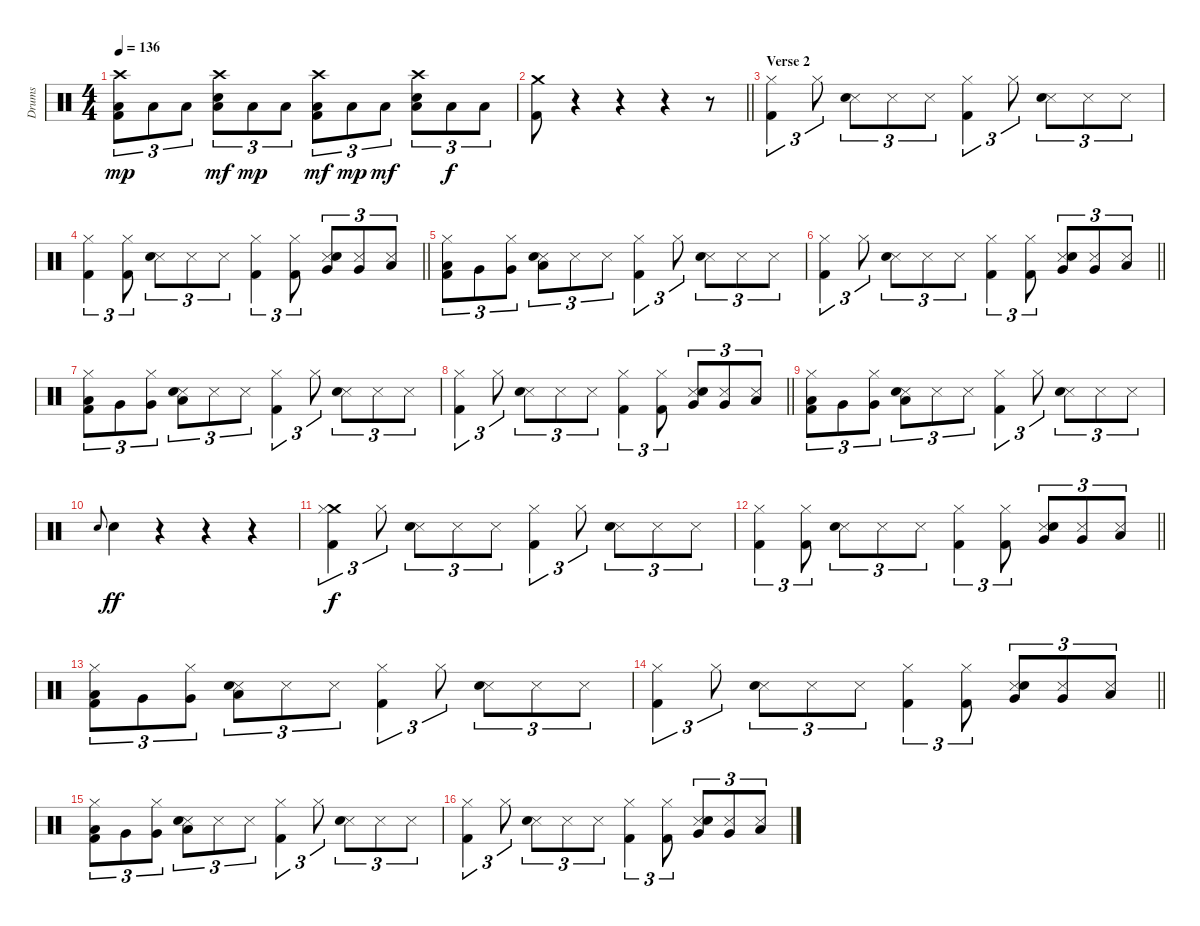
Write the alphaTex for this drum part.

\track ("Drums" "Drums") {instrument percussion}
\staff {score}
\articulation defaults
\ts (4 4)
\tempo 136
\clef neutral
\ks c
("Crash high (hit)" "Low Floor Tom (hit)" "Kick (hit) 2").8{tu (3 2) dy mp} "Low Floor Tom (hit)".8{tu (3 2)} "Low Floor Tom (hit)".8{tu (3 2)} ("Crash high (hit)" "Electric Snare (hit)" "Low Floor Tom (hit)").8{tu (3 2) dy mf} "Low Floor Tom (hit)".8{tu (3 2) dy mp} "Low Floor Tom (hit)".8{tu (3 2)} ("Crash high (hit)" "Low Floor Tom (hit)" "Kick (hit) 2").8{tu (3 2) dy mf} "Low Floor Tom (hit)".8{tu (3 2) dy mp} "Low Floor Tom (hit)".8{tu (3 2) dy mf} ("Crash high (hit)" "Electric Snare (hit)" "Low Floor Tom (hit)").8{tu (3 2)} "Low Floor Tom (hit)".8{tu (3 2) dy f} "Low Floor Tom (hit)".8{tu (3 2)} |
\barLineRight lightlight
("Crash medium (hit)" "Kick (hit) 2").8 r.4 r.4 r.4 r.8 |
\section ("" "Verse 2")
("Hi-Hat (closed)" "Kick (hit) 2").4{tu (3 2)} "Hi-Hat (closed)".8{tu (3 2)} ("Snare (side stick) 3" "Electric Snare (hit)").8{tu (3 2)} "Snare (side stick) 3".8{tu (3 2)} "Snare (side stick) 3".8{tu (3 2)} ("Hi-Hat (closed)" "Kick (hit) 2").4{tu (3 2)} "Hi-Hat (closed)".8{tu (3 2)} ("Snare (side stick) 3" "Electric Snare (hit)").8{tu (3 2)} "Snare (side stick) 3".8{tu (3 2)} "Snare (side stick) 3".8{tu (3 2)} |
\barLineRight lightlight
("Hi-Hat (closed)" "Kick (hit) 2").4{tu (3 2)} ("Hi-Hat (closed)" "Kick (hit) 2").8{tu (3 2)} ("Snare (side stick) 3" "Electric Snare (hit)").8{tu (3 2)} "Snare (side stick) 3".8{tu (3 2)} "Snare (side stick) 3".8{tu (3 2)} ("Hi-Hat (closed)" "Kick (hit) 2").4{tu (3 2)} ("Hi-Hat (closed)" "Kick (hit) 2").8{tu (3 2)} ("Snare (side stick) 3" "Electric Snare (hit)" "Very Low Tom (hit)").8{tu (3 2)} ("Snare (side stick) 3" "Very Low Tom (hit)").8{tu (3 2)} ("Snare (side stick) 3" "Low Floor Tom (hit)").8{tu (3 2)} |
("Hi-Hat (closed)" "Low Floor Tom (hit)" "Kick (hit) 2").8{tu (3 2)} "Very Low Tom (hit)".8{tu (3 2)} ("Hi-Hat (closed)" "Very Low Tom (hit)").8{tu (3 2)} ("Snare (side stick) 3" "Electric Snare (hit)" "Low Tom (hit)").8{tu (3 2)} "Snare (side stick) 3".8{tu (3 2)} "Snare (side stick) 3".8{tu (3 2)} ("Hi-Hat (closed)" "Kick (hit) 2").4{tu (3 2)} "Hi-Hat (closed)".8{tu (3 2)} ("Snare (side stick) 3" "Electric Snare (hit)").8{tu (3 2)} "Snare (side stick) 3".8{tu (3 2)} "Snare (side stick) 3".8{tu (3 2)} |
\barLineRight lightlight
("Hi-Hat (closed)" "Kick (hit) 2").4{tu (3 2)} "Hi-Hat (closed)".8{tu (3 2)} ("Snare (side stick) 3" "Electric Snare (hit)").8{tu (3 2)} "Snare (side stick) 3".8{tu (3 2)} "Snare (side stick) 3".8{tu (3 2)} ("Hi-Hat (closed)" "Kick (hit) 2").4{tu (3 2)} ("Hi-Hat (closed)" "Kick (hit) 2").8{tu (3 2)} ("Snare (side stick) 3" "Electric Snare (hit)" "Very Low Tom (hit)").8{tu (3 2)} ("Snare (side stick) 3" "Very Low Tom (hit)").8{tu (3 2)} ("Snare (side stick) 3" "Low Floor Tom (hit)").8{tu (3 2)} |
("Hi-Hat (closed)" "Low Floor Tom (hit)" "Kick (hit) 2").8{tu (3 2)} "Very Low Tom (hit)".8{tu (3 2)} ("Hi-Hat (closed)" "Very Low Tom (hit)").8{tu (3 2)} ("Snare (side stick) 3" "Electric Snare (hit)" "Low Tom (hit)").8{tu (3 2)} "Snare (side stick) 3".8{tu (3 2)} "Snare (side stick) 3".8{tu (3 2)} ("Hi-Hat (closed)" "Kick (hit) 2").4{tu (3 2)} "Hi-Hat (closed)".8{tu (3 2)} ("Snare (side stick) 3" "Electric Snare (hit)").8{tu (3 2)} "Snare (side stick) 3".8{tu (3 2)} "Snare (side stick) 3".8{tu (3 2)} |
\barLineRight lightlight
("Hi-Hat (closed)" "Kick (hit) 2").4{tu (3 2)} "Hi-Hat (closed)".8{tu (3 2)} ("Snare (side stick) 3" "Electric Snare (hit)").8{tu (3 2)} "Snare (side stick) 3".8{tu (3 2)} "Snare (side stick) 3".8{tu (3 2)} ("Hi-Hat (closed)" "Kick (hit) 2").4{tu (3 2)} ("Hi-Hat (closed)" "Kick (hit) 2").8{tu (3 2)} ("Snare (side stick) 3" "Electric Snare (hit)" "Very Low Tom (hit)").8{tu (3 2)} ("Snare (side stick) 3" "Very Low Tom (hit)").8{tu (3 2)} ("Snare (side stick) 3" "Low Floor Tom (hit)").8{tu (3 2)} |
("Hi-Hat (closed)" "Low Floor Tom (hit)" "Kick (hit) 2").8{tu (3 2)} "Very Low Tom (hit)".8{tu (3 2)} ("Hi-Hat (closed)" "Very Low Tom (hit)").8{tu (3 2)} ("Snare (side stick) 3" "Electric Snare (hit)" "Low Tom (hit)").8{tu (3 2)} "Snare (side stick) 3".8{tu (3 2)} "Snare (side stick) 3".8{tu (3 2)} ("Hi-Hat (closed)" "Kick (hit) 2").4{tu (3 2)} "Hi-Hat (closed)".8{tu (3 2)} ("Snare (side stick) 3" "Electric Snare (hit)").8{tu (3 2)} "Snare (side stick) 3".8{tu (3 2)} "Snare (side stick) 3".8{tu (3 2)} |
"Electric Snare (hit)".8{gr onbeat} "Electric Snare (hit)".4{dy ff} r.4 r.4 r.4 |
("Crash medium (hit)" "Hi-Hat (closed)" "Kick (hit) 2").4{tu (3 2) dy f} "Hi-Hat (closed)".8{tu (3 2)} ("Snare (side stick) 3" "Electric Snare (hit)").8{tu (3 2)} "Snare (side stick) 3".8{tu (3 2)} "Snare (side stick) 3".8{tu (3 2)} ("Hi-Hat (closed)" "Kick (hit) 2").4{tu (3 2)} "Hi-Hat (closed)".8{tu (3 2)} ("Snare (side stick) 3" "Electric Snare (hit)").8{tu (3 2)} "Snare (side stick) 3".8{tu (3 2)} "Snare (side stick) 3".8{tu (3 2)} |
\barLineRight lightlight
("Hi-Hat (closed)" "Kick (hit) 2").4{tu (3 2)} ("Hi-Hat (closed)" "Kick (hit) 2").8{tu (3 2)} ("Snare (side stick) 3" "Electric Snare (hit)").8{tu (3 2)} "Snare (side stick) 3".8{tu (3 2)} "Snare (side stick) 3".8{tu (3 2)} ("Hi-Hat (closed)" "Kick (hit) 2").4{tu (3 2)} ("Hi-Hat (closed)" "Kick (hit) 2").8{tu (3 2)} ("Snare (side stick) 3" "Electric Snare (hit)" "Very Low Tom (hit)").8{tu (3 2)} ("Snare (side stick) 3" "Very Low Tom (hit)").8{tu (3 2)} ("Snare (side stick) 3" "Low Floor Tom (hit)").8{tu (3 2)} |
("Hi-Hat (closed)" "Low Floor Tom (hit)" "Kick (hit) 2").8{tu (3 2)} "Very Low Tom (hit)".8{tu (3 2)} ("Hi-Hat (closed)" "Very Low Tom (hit)").8{tu (3 2)} ("Snare (side stick) 3" "Electric Snare (hit)" "Low Tom (hit)").8{tu (3 2)} "Snare (side stick) 3".8{tu (3 2)} "Snare (side stick) 3".8{tu (3 2)} ("Hi-Hat (closed)" "Kick (hit) 2").4{tu (3 2)} "Hi-Hat (closed)".8{tu (3 2)} ("Snare (side stick) 3" "Electric Snare (hit)").8{tu (3 2)} "Snare (side stick) 3".8{tu (3 2)} "Snare (side stick) 3".8{tu (3 2)} |
\barLineRight lightlight
("Hi-Hat (closed)" "Kick (hit) 2").4{tu (3 2)} "Hi-Hat (closed)".8{tu (3 2)} ("Snare (side stick) 3" "Electric Snare (hit)").8{tu (3 2)} "Snare (side stick) 3".8{tu (3 2)} "Snare (side stick) 3".8{tu (3 2)} ("Hi-Hat (closed)" "Kick (hit) 2").4{tu (3 2)} ("Hi-Hat (closed)" "Kick (hit) 2").8{tu (3 2)} ("Snare (side stick) 3" "Electric Snare (hit)" "Very Low Tom (hit)").8{tu (3 2)} ("Snare (side stick) 3" "Very Low Tom (hit)").8{tu (3 2)} ("Snare (side stick) 3" "Low Floor Tom (hit)").8{tu (3 2)} |
("Hi-Hat (closed)" "Low Floor Tom (hit)" "Kick (hit) 2").8{tu (3 2)} "Very Low Tom (hit)".8{tu (3 2)} ("Hi-Hat (closed)" "Very Low Tom (hit)").8{tu (3 2)} ("Snare (side stick) 3" "Electric Snare (hit)" "Low Tom (hit)").8{tu (3 2)} "Snare (side stick) 3".8{tu (3 2)} "Snare (side stick) 3".8{tu (3 2)} ("Hi-Hat (closed)" "Kick (hit) 2").4{tu (3 2)} "Hi-Hat (closed)".8{tu (3 2)} ("Snare (side stick) 3" "Electric Snare (hit)").8{tu (3 2)} "Snare (side stick) 3".8{tu (3 2)} "Snare (side stick) 3".8{tu (3 2)} |
("Hi-Hat (closed)" "Kick (hit) 2").4{tu (3 2)} "Hi-Hat (closed)".8{tu (3 2)} ("Snare (side stick) 3" "Electric Snare (hit)").8{tu (3 2)} "Snare (side stick) 3".8{tu (3 2)} "Snare (side stick) 3".8{tu (3 2)} ("Hi-Hat (closed)" "Kick (hit) 2").4{tu (3 2)} ("Hi-Hat (closed)" "Kick (hit) 2").8{tu (3 2)} ("Snare (side stick) 3" "Electric Snare (hit)" "Very Low Tom (hit)").8{tu (3 2)} ("Snare (side stick) 3" "Very Low Tom (hit)").8{tu (3 2)} ("Snare (side stick) 3" "Low Floor Tom (hit)").8{tu (3 2)}
